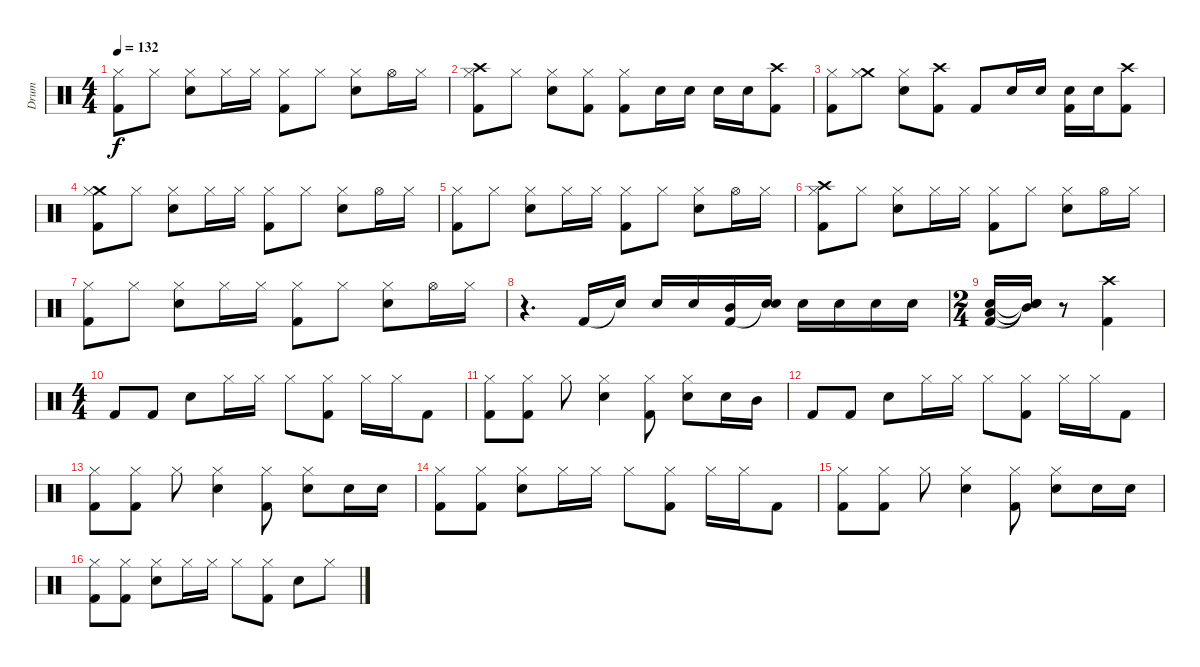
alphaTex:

\track ("Drum" "Drum") {instrument percussion}
\staff {score}
\articulation defaults
\ts (4 4)
\tempo 132
\clef neutral
\ks c
("Hi-Hat (closed)" "Kick (hit) 2").8{dy f} "Hi-Hat (closed)".8 ("Hi-Hat (closed)" "Snare (hit) 2").8 "Hi-Hat (closed)".16 "Hi-Hat (closed)".16 ("Hi-Hat (closed)" "Kick (hit) 2").8 "Hi-Hat (closed)".8 ("Hi-Hat (closed)" "Snare (hit) 2").8 "Hi-Hat (open)".16 "Hi-Hat (closed)".16 |
("Crash high (hit)" "Hi-Hat (closed)" "Kick (hit) 2").8 "Hi-Hat (closed)".8 ("Hi-Hat (closed)" "Snare (hit) 2").8 ("Hi-Hat (closed)" "Kick (hit) 2").8 ("Hi-Hat (closed)" "Kick (hit) 2").8 "Snare (hit) 2".16 "Snare (hit) 2".16 "Snare (hit) 2".16 "Snare (hit) 2".16 ("Crash high (hit)" "Kick (hit) 2").8 |
("Hi-Hat (closed)" "Kick (hit) 2").8 ("Crash medium (hit)" "Hi-Hat (closed)").8 ("Hi-Hat (closed)" "Snare (hit) 2").8 ("Crash high (hit)" "Kick (hit) 2").8 "Kick (hit) 2".8 "Snare (hit) 2".16 "Snare (hit) 2".16 ("Snare (hit) 2" "Kick (hit) 2").16 "Snare (hit) 2".16 ("Crash high (hit)" "Kick (hit) 2").8 |
("Crash medium (hit)" "Hi-Hat (closed)" "Kick (hit) 2").8 "Hi-Hat (closed)".8 ("Hi-Hat (closed)" "Snare (hit) 2").8 "Hi-Hat (closed)".16 "Hi-Hat (closed)".16 ("Hi-Hat (closed)" "Kick (hit) 2").8 "Hi-Hat (closed)".8 ("Hi-Hat (closed)" "Snare (hit) 2").8 "Hi-Hat (open)".16 "Hi-Hat (closed)".16 |
("Hi-Hat (closed)" "Kick (hit) 2").8 "Hi-Hat (closed)".8 ("Hi-Hat (closed)" "Snare (hit) 2").8 "Hi-Hat (closed)".16 "Hi-Hat (closed)".16 ("Hi-Hat (closed)" "Kick (hit) 2").8 "Hi-Hat (closed)".8 ("Hi-Hat (closed)" "Snare (hit) 2").8 "Hi-Hat (open)".16 "Hi-Hat (closed)".16 |
("Crash high (hit)" "Hi-Hat (closed)" "Kick (hit) 2").8 "Hi-Hat (closed)".8 ("Hi-Hat (closed)" "Snare (hit) 2").8 "Hi-Hat (closed)".16 "Hi-Hat (closed)".16 ("Hi-Hat (closed)" "Kick (hit) 2").8 "Hi-Hat (closed)".8 ("Hi-Hat (closed)" "Snare (hit) 2").8 "Hi-Hat (open)".16 "Hi-Hat (closed)".16 |
("Hi-Hat (closed)" "Kick (hit) 2").8 "Hi-Hat (closed)".8 ("Hi-Hat (closed)" "Snare (hit) 2").8 "Hi-Hat (closed)".16 "Hi-Hat (closed)".16 ("Hi-Hat (closed)" "Kick (hit) 2").8 "Hi-Hat (closed)".8 ("Hi-Hat (closed)" "Snare (hit) 2").8 "Hi-Hat (open)".16 "Hi-Hat (closed)".16 |
r.4{d} "Kick (hit) 2".16 "Snare (hit)"{t}.16 "Snare (hit) 2".16 "Snare (hit) 2".16 ("Mid Tom (hit)" "Kick (hit) 2").16 ("Snare (hit) 2" "Snare (hit)"{t}).16 "Snare (hit) 2".16 "Snare (hit) 2".16 "Snare (hit) 2".16 "Snare (hit) 2".16 |
\ts (2 4)
("Low Tom (hit)" "Snare (hit) 2" "Kick (hit) 2").16 ("Mid Tom (hit)"{t} "Snare (hit)"{t} "Snare (hit)"{t}).16 r.8 ("Crash high (hit)" "Kick (hit) 2").4 |
\ts (4 4)
"Kick (hit) 2".8 "Kick (hit) 2".8 "Snare (hit) 2".8 "Hi-Hat (closed)".16 "Hi-Hat (closed)".16 "Hi-Hat (closed)".8 ("Hi-Hat (closed)" "Kick (hit) 2").8 "Hi-Hat (closed)".16 "Hi-Hat (closed)".16 "Kick (hit) 2".8 |
("Hi-Hat (closed)" "Kick (hit) 2").8 ("Hi-Hat (closed)" "Kick (hit) 2").8 "Hi-Hat (closed)".8 ("Hi-Hat (closed)" "Snare (hit) 2").4 ("Hi-Hat (closed)" "Kick (hit) 2").8 ("Hi-Hat (closed)" "Electric Snare (hit)").8 "Snare (hit) 2".16 "Mid Tom (hit)".16 |
"Kick (hit) 2".8 "Kick (hit) 2".8 "Snare (hit) 2".8 "Hi-Hat (closed)".16 "Hi-Hat (closed)".16 "Hi-Hat (closed)".8 ("Hi-Hat (closed)" "Kick (hit) 2").8 "Hi-Hat (closed)".16 "Hi-Hat (closed)".16 "Kick (hit) 2".8 |
("Hi-Hat (closed)" "Kick (hit) 2").8 ("Hi-Hat (closed)" "Kick (hit) 2").8 "Hi-Hat (closed)".8 ("Hi-Hat (closed)" "Snare (hit) 2").4 ("Hi-Hat (closed)" "Kick (hit) 2").8 ("Hi-Hat (closed)" "Snare (hit) 2").8 "Snare (hit) 2".16 "Snare (hit) 2".16 |
("Hi-Hat (closed)" "Kick (hit) 2").8 ("Hi-Hat (closed)" "Kick (hit) 2").8 ("Hi-Hat (closed)" "Snare (hit) 2").8 "Hi-Hat (closed)".16 "Hi-Hat (closed)".16 "Hi-Hat (closed)".8 ("Hi-Hat (closed)" "Kick (hit) 2").8 "Hi-Hat (closed)".16 "Hi-Hat (closed)".16 "Kick (hit) 2".8 |
("Hi-Hat (closed)" "Kick (hit) 2").8 ("Hi-Hat (closed)" "Kick (hit) 2").8 "Hi-Hat (closed)".8 ("Hi-Hat (closed)" "Snare (hit) 2").4 ("Hi-Hat (closed)" "Kick (hit) 2").8 ("Hi-Hat (closed)" "Electric Snare (hit)").8 "Snare (hit) 2".16 "Snare (hit) 2".16 |
("Hi-Hat (closed)" "Kick (hit) 2").8 ("Hi-Hat (closed)" "Kick (hit) 2").8 ("Hi-Hat (closed)" "Snare (hit) 2").8 "Hi-Hat (closed)".16 "Hi-Hat (closed)".16 "Hi-Hat (closed)".8 ("Hi-Hat (closed)" "Kick (hit) 2").8 "Snare (hit) 2".8 "Hi-Hat (closed)".8
